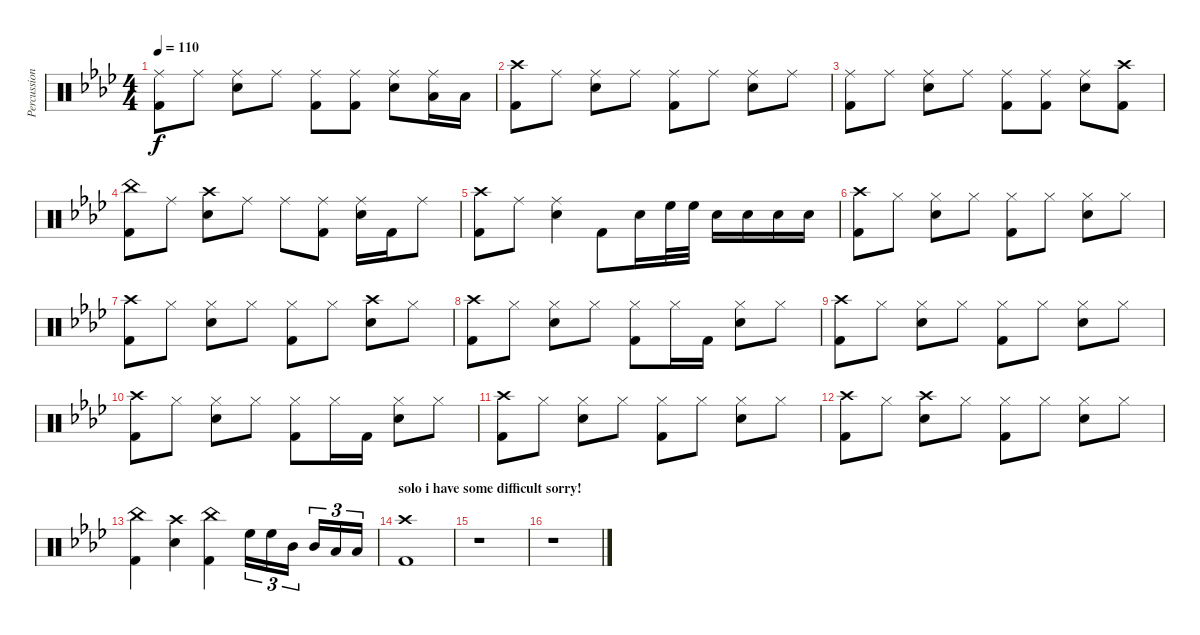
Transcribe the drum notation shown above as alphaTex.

\track ("Percussions" "Percussion") {instrument percussion}
\staff {score}
\articulation defaults
\ts (4 4)
\tempo 110
\clef neutral
\ks fminor
("Ride (middle)" "Kick (hit) 2").8{dy f} "Ride (middle)".8 ("Ride (middle)" "Snare (hit) 2").8 "Ride (middle)".8 ("Ride (middle)" "Kick (hit) 2").8 ("Ride (middle)" "Kick (hit) 2").8 ("Ride (middle)" "Snare (hit) 2").8 ("Ride (middle)" "Low Tom (hit)").16 "Low Tom (hit)".16 |
("Crash high (hit)" "Kick (hit) 2").8 "Ride (middle)".8 ("Ride (middle)" "Snare (hit) 2").8 "Ride (middle)".8 ("Ride (middle)" "Kick (hit) 2").8 "Ride (middle)".8 ("Ride (middle)" "Snare (hit) 2").8 "Ride (middle)".8 |
("Ride (middle)" "Kick (hit) 2").8 "Ride (middle)".8 ("Ride (middle)" "Snare (hit) 2").8 "Ride (middle)".8 ("Ride (middle)" "Kick (hit) 2").8 ("Ride (middle)" "Kick (hit) 2").8 ("Ride (middle)" "Snare (hit) 2").8 ("Crash high (hit)" "Kick (hit) 2").8 |
("China (hit)" "Kick (hit) 2").8 "Ride (middle)".8 ("Crash high (hit)" "Snare (hit) 2").8 "Ride (middle)".8 "Ride (middle)".8 ("Ride (middle)" "Kick (hit) 2").8 ("Ride (middle)" "Snare (hit) 2").16 "Kick (hit) 2".16 "Ride (middle)".8 |
("Crash high (hit)" "Kick (hit) 2").8 "Ride (middle)".8 ("Ride (middle)" "Snare (hit) 2").4 "Kick (hit) 2".8 "Snare (hit) 2".16 "High Floor Tom (hit)".32 "High Floor Tom (hit)".32 "Snare (hit) 2".16 "Snare (hit) 2".16 "Snare (hit) 2".16 "Snare (hit) 2".16 |
("Crash high (hit)" "Kick (hit) 2").8 "Hi-Hat (closed)".8 ("Hi-Hat (closed)" "Snare (hit) 2").8 "Hi-Hat (closed)".8 ("Hi-Hat (closed)" "Kick (hit) 2").8 "Hi-Hat (closed)".8 ("Hi-Hat (closed)" "Snare (hit) 2").8 "Hi-Hat (closed)".8 |
("Crash high (hit)" "Kick (hit) 2").8 "Hi-Hat (closed)".8 ("Hi-Hat (closed)" "Snare (hit) 2").8 "Hi-Hat (closed)".8 ("Hi-Hat (closed)" "Kick (hit) 2").8 "Hi-Hat (closed)".8 ("Crash high (hit)" "Snare (hit) 2").8 "Hi-Hat (closed)".8 |
("Crash high (hit)" "Kick (hit) 2").8 "Hi-Hat (closed)".8 ("Hi-Hat (closed)" "Snare (hit) 2").8 "Hi-Hat (closed)".8 ("Hi-Hat (closed)" "Kick (hit) 2").8 "Hi-Hat (closed)".16 "Kick (hit) 2".16 ("Hi-Hat (closed)" "Snare (hit) 2").8 "Hi-Hat (closed)".8 |
("Crash high (hit)" "Kick (hit) 2").8 "Hi-Hat (closed)".8 ("Hi-Hat (closed)" "Snare (hit) 2").8 "Hi-Hat (closed)".8 ("Hi-Hat (closed)" "Kick (hit) 2").8 "Hi-Hat (closed)".8 ("Hi-Hat (closed)" "Snare (hit) 2").8 "Hi-Hat (closed)".8 |
("Crash high (hit)" "Kick (hit) 2").8 "Hi-Hat (closed)".8 ("Hi-Hat (closed)" "Snare (hit) 2").8 "Hi-Hat (closed)".8 ("Hi-Hat (closed)" "Kick (hit) 2").8 "Hi-Hat (closed)".16 "Kick (hit) 2".16 ("Hi-Hat (closed)" "Snare (hit) 2").8 "Hi-Hat (closed)".8 |
("Crash high (hit)" "Kick (hit) 2").8 "Hi-Hat (closed)".8 ("Hi-Hat (closed)" "Snare (hit) 2").8 "Hi-Hat (closed)".8 ("Hi-Hat (closed)" "Kick (hit) 2").8 "Hi-Hat (closed)".8 ("Hi-Hat (closed)" "Snare (hit) 2").8 "Hi-Hat (closed)".8 |
("Crash high (hit)" "Kick (hit) 2").8 "Hi-Hat (closed)".8 ("Crash high (hit)" "Snare (hit) 2").8 "Hi-Hat (closed)".8 ("Hi-Hat (closed)" "Kick (hit) 2").8 "Hi-Hat (closed)".8 ("Hi-Hat (closed)" "Snare (hit) 2").8 "Hi-Hat (closed)".8 |
("China (hit)" "Kick (hit) 2").4 ("Crash high (hit)" "Snare (hit) 2").4 ("China (hit)" "Kick (hit) 2").4 "High Floor Tom (hit)".16{tu (3 2)} "High Floor Tom (hit)".16{tu (3 2)} "Mid Tom (hit)".16{tu (3 2)} "Mid Tom (hit)".16{tu (3 2)} "Low Tom (hit)".16{tu (3 2)} "Low Tom (hit)".16{tu (3 2)} |
\section ("" "solo i have some difficult sorry!")
("Crash high (hit)" "Kick (hit) 2").1 |
r.1 |
r.1
